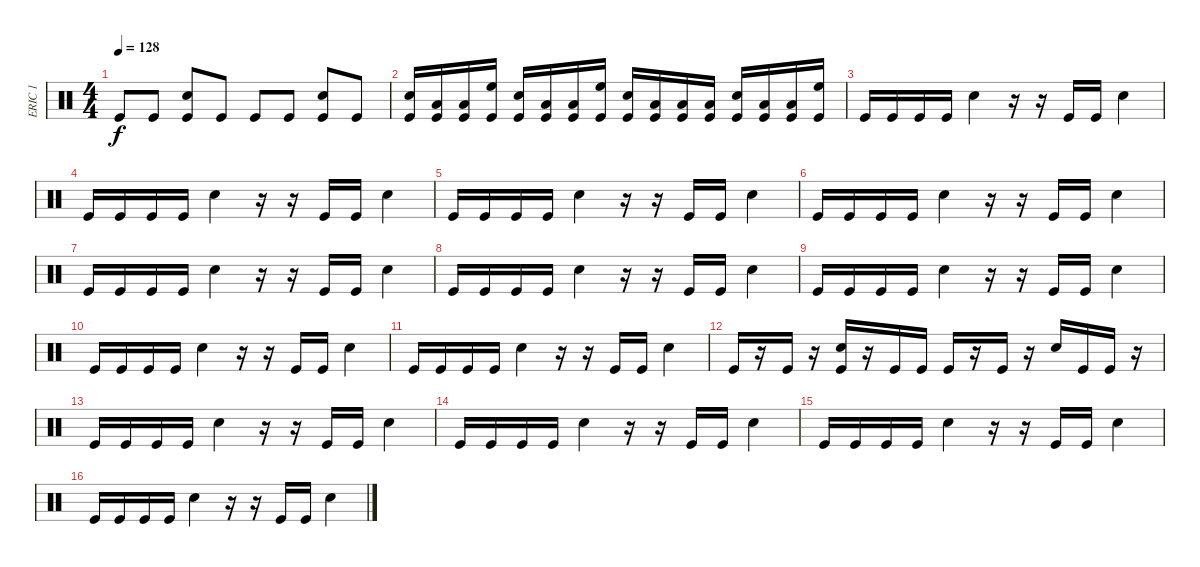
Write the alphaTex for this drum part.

\track ("ERIC 1" "ERIC 1") {instrument percussion}
\staff {score}
\articulation defaults
\ts (4 4)
\tempo 128
\clef neutral
\ks c "Kick (hit)".8{dy f} "Kick (hit)".8
("Electric Snare (hit)" "Kick (hit)").8 "Kick (hit)".8 "Kick (hit)".8 "Kick (hit)".8 ("Electric Snare (hit)" "Kick (hit)").8 "Kick (hit)".8 |
("Electric Snare (hit)" "Kick (hit)").16 ("Low Floor Tom (hit)" "Kick (hit)").16 ("Low Tom (hit)" "Kick (hit)").16 ("High Floor Tom (hit)" "Kick (hit)").16 ("Electric Snare (hit)" "Kick (hit)").16 ("Low Floor Tom (hit)" "Kick (hit)").16 ("Low Tom (hit)" "Kick (hit)").16 ("High Floor Tom (hit)" "Kick (hit)").16 ("Electric Snare (hit)" "Kick (hit)").16 ("Low Floor Tom (hit)" "Kick (hit)").16 ("Low Tom (hit)" "Kick (hit)").16 ("Low Floor Tom (hit)" "Kick (hit)").16 ("Electric Snare (hit)" "Kick (hit)").16 ("Low Floor Tom (hit)" "Kick (hit)").16 ("Low Tom (hit)" "Kick (hit)").16 ("High Floor Tom (hit)" "Kick (hit)").16 |
"Kick (hit)".16 "Kick (hit)".16 "Kick (hit)".16 "Kick (hit)".16 "Electric Snare (hit)".4 r.16 r.16 "Kick (hit)".16 "Kick (hit)".16 "Electric Snare (hit)".4 |
"Kick (hit)".16 "Kick (hit)".16 "Kick (hit)".16 "Kick (hit)".16 "Electric Snare (hit)".4 r.16 r.16 "Kick (hit)".16 "Kick (hit)".16 "Electric Snare (hit)".4 |
"Kick (hit)".16 "Kick (hit)".16 "Kick (hit)".16 "Kick (hit)".16 "Electric Snare (hit)".4 r.16 r.16 "Kick (hit)".16 "Kick (hit)".16 "Electric Snare (hit)".4 |
"Kick (hit)".16 "Kick (hit)".16 "Kick (hit)".16 "Kick (hit)".16 "Electric Snare (hit)".4 r.16 r.16 "Kick (hit)".16 "Kick (hit)".16 "Electric Snare (hit)".4 |
"Kick (hit)".16 "Kick (hit)".16 "Kick (hit)".16 "Kick (hit)".16 "Electric Snare (hit)".4 r.16 r.16 "Kick (hit)".16 "Kick (hit)".16 "Electric Snare (hit)".4 |
"Kick (hit)".16 "Kick (hit)".16 "Kick (hit)".16 "Kick (hit)".16 "Electric Snare (hit)".4 r.16 r.16 "Kick (hit)".16 "Kick (hit)".16 "Electric Snare (hit)".4 |
"Kick (hit)".16 "Kick (hit)".16 "Kick (hit)".16 "Kick (hit)".16 "Electric Snare (hit)".4 r.16 r.16 "Kick (hit)".16 "Kick (hit)".16 "Electric Snare (hit)".4 |
"Kick (hit)".16 "Kick (hit)".16 "Kick (hit)".16 "Kick (hit)".16 "Electric Snare (hit)".4 r.16 r.16 "Kick (hit)".16 "Kick (hit)".16 "Electric Snare (hit)".4 |
"Kick (hit)".16 "Kick (hit)".16 "Kick (hit)".16 "Kick (hit)".16 "Electric Snare (hit)".4 r.16 r.16 "Kick (hit)".16 "Kick (hit)".16 "Electric Snare (hit)".4 |
"Kick (hit)".16 r.16 "Kick (hit)".16 r.16 ("Electric Snare (hit)" "Kick (hit)").16 r.16 "Kick (hit)".16 "Kick (hit)".16 "Kick (hit)".16 r.16 "Kick (hit)".16 r.16 "Electric Snare (hit)".16 "Kick (hit)".16 "Kick (hit)".16 r.16 |
"Kick (hit)".16 "Kick (hit)".16 "Kick (hit)".16 "Kick (hit)".16 "Electric Snare (hit)".4 r.16 r.16 "Kick (hit)".16 "Kick (hit)".16 "Electric Snare (hit)".4 |
"Kick (hit)".16 "Kick (hit)".16 "Kick (hit)".16 "Kick (hit)".16 "Electric Snare (hit)".4 r.16 r.16 "Kick (hit)".16 "Kick (hit)".16 "Electric Snare (hit)".4 |
"Kick (hit)".16 "Kick (hit)".16 "Kick (hit)".16 "Kick (hit)".16 "Electric Snare (hit)".4 r.16 r.16 "Kick (hit)".16 "Kick (hit)".16 "Electric Snare (hit)".4 |
"Kick (hit)".16 "Kick (hit)".16 "Kick (hit)".16 "Kick (hit)".16 "Electric Snare (hit)".4 r.16 r.16 "Kick (hit)".16 "Kick (hit)".16 "Electric Snare (hit)".4
